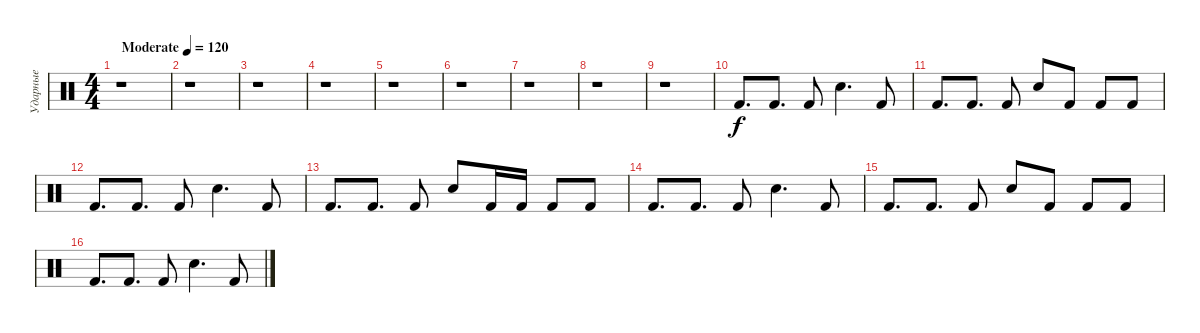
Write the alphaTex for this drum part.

\track ("Ударные" "Ударные") {instrument percussion}
\staff {score}
\articulation defaults
\ts (4 4)
\tempo (120 "Moderate")
\clef neutral
\ks c
r.1{dy f} |
r.1 |
r.1 |
r.1 |
r.1 |
r.1 |
r.1 |
r.1 |
r.1 |
"Kick (hit) 2".8{d} "Kick (hit) 2".8{d} "Kick (hit) 2".8 "Snare (hit) 2".4{d} "Kick (hit) 2".8 |
"Kick (hit) 2".8{d} "Kick (hit) 2".8{d} "Kick (hit) 2".8 "Snare (hit) 2".8 "Kick (hit) 2".8 "Kick (hit) 2".8 "Kick (hit) 2".8 |
"Kick (hit) 2".8{d} "Kick (hit) 2".8{d} "Kick (hit) 2".8 "Snare (hit) 2".4{d} "Kick (hit) 2".8 |
"Kick (hit) 2".8{d} "Kick (hit) 2".8{d} "Kick (hit) 2".8 "Snare (hit) 2".8 "Kick (hit) 2".16 "Kick (hit) 2".16 "Kick (hit) 2".8 "Kick (hit) 2".8 |
"Kick (hit) 2".8{d} "Kick (hit) 2".8{d} "Kick (hit) 2".8 "Snare (hit) 2".4{d} "Kick (hit) 2".8 |
"Kick (hit) 2".8{d} "Kick (hit) 2".8{d} "Kick (hit) 2".8 "Snare (hit) 2".8 "Kick (hit) 2".8 "Kick (hit) 2".8 "Kick (hit) 2".8 |
"Kick (hit) 2".8{d} "Kick (hit) 2".8{d} "Kick (hit) 2".8 "Snare (hit) 2".4{d} "Kick (hit) 2".8
